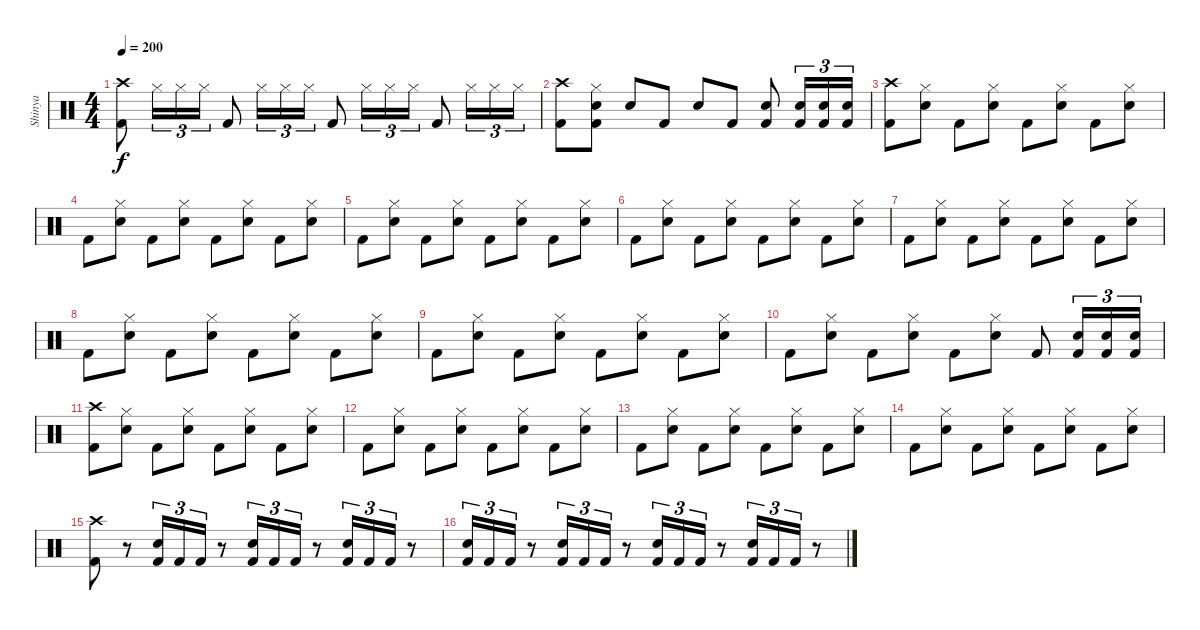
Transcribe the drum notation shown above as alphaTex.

\track ("Shinya" "Shinya") {instrument percussion}
\staff {score}
\articulation defaults
\ts (4 4)
\tempo 200
\clef neutral
\ks c
("Crash high (hit)" "Kick (hit) 2").8{dy f} "Hi-Hat (closed)".16{tu (3 2)} "Hi-Hat (closed)".16{tu (3 2)} "Hi-Hat (closed)".16{tu (3 2)} "Kick (hit) 2".8 "Hi-Hat (closed)".16{tu (3 2)} "Hi-Hat (closed)".16{tu (3 2)} "Hi-Hat (closed)".16{tu (3 2)} "Kick (hit) 2".8 "Hi-Hat (closed)".16{tu (3 2)} "Hi-Hat (closed)".16{tu (3 2)} "Hi-Hat (closed)".16{tu (3 2)} "Kick (hit) 2".8 "Hi-Hat (closed)".16{tu (3 2)} "Hi-Hat (closed)".16{tu (3 2)} "Hi-Hat (closed)".16{tu (3 2)} |
("Crash high (hit)" "Kick (hit) 2").8 ("Hi-Hat (closed)" "Electric Snare (hit)" "Kick (hit) 2").8 "Electric Snare (hit)".8 "Kick (hit) 2".8 "Electric Snare (hit)".8 "Kick (hit) 2".8 ("Electric Snare (hit)" "Kick (hit) 2").8 ("Electric Snare (hit)" "Kick (hit) 2").16{tu (3 2)} ("Electric Snare (hit)" "Kick (hit) 2").16{tu (3 2)} ("Electric Snare (hit)" "Kick (hit) 2").16{tu (3 2)} |
("Crash high (hit)" "Kick (hit) 2").8 ("Hi-Hat (closed)" "Electric Snare (hit)").8 "Kick (hit) 2".8 ("Hi-Hat (closed)" "Electric Snare (hit)").8 "Kick (hit) 2".8 ("Hi-Hat (closed)" "Electric Snare (hit)").8 "Kick (hit) 2".8 ("Hi-Hat (closed)" "Electric Snare (hit)").8 |
"Kick (hit) 2".8 ("Hi-Hat (closed)" "Electric Snare (hit)").8 "Kick (hit) 2".8 ("Hi-Hat (closed)" "Electric Snare (hit)").8 "Kick (hit) 2".8 ("Hi-Hat (closed)" "Electric Snare (hit)").8 "Kick (hit) 2".8 ("Hi-Hat (closed)" "Electric Snare (hit)").8 |
"Kick (hit) 2".8 ("Hi-Hat (closed)" "Electric Snare (hit)").8 "Kick (hit) 2".8 ("Hi-Hat (closed)" "Electric Snare (hit)").8 "Kick (hit) 2".8 ("Hi-Hat (closed)" "Electric Snare (hit)").8 "Kick (hit) 2".8 ("Hi-Hat (closed)" "Electric Snare (hit)").8 |
"Kick (hit) 2".8 ("Hi-Hat (closed)" "Electric Snare (hit)").8 "Kick (hit) 2".8 ("Hi-Hat (closed)" "Electric Snare (hit)").8 "Kick (hit) 2".8 ("Hi-Hat (closed)" "Electric Snare (hit)").8 "Kick (hit) 2".8 ("Hi-Hat (closed)" "Electric Snare (hit)").8 |
"Kick (hit) 2".8 ("Hi-Hat (closed)" "Electric Snare (hit)").8 "Kick (hit) 2".8 ("Hi-Hat (closed)" "Electric Snare (hit)").8 "Kick (hit) 2".8 ("Hi-Hat (closed)" "Electric Snare (hit)").8 "Kick (hit) 2".8 ("Hi-Hat (closed)" "Electric Snare (hit)").8 |
"Kick (hit) 2".8 ("Hi-Hat (closed)" "Electric Snare (hit)").8 "Kick (hit) 2".8 ("Hi-Hat (closed)" "Electric Snare (hit)").8 "Kick (hit) 2".8 ("Hi-Hat (closed)" "Electric Snare (hit)").8 "Kick (hit) 2".8 ("Hi-Hat (closed)" "Electric Snare (hit)").8 |
"Kick (hit) 2".8 ("Hi-Hat (closed)" "Electric Snare (hit)").8 "Kick (hit) 2".8 ("Hi-Hat (closed)" "Electric Snare (hit)").8 "Kick (hit) 2".8 ("Hi-Hat (closed)" "Electric Snare (hit)").8 "Kick (hit) 2".8 ("Hi-Hat (closed)" "Electric Snare (hit)").8 |
"Kick (hit) 2".8 ("Hi-Hat (closed)" "Electric Snare (hit)").8 "Kick (hit) 2".8 ("Hi-Hat (closed)" "Electric Snare (hit)").8 "Kick (hit) 2".8 ("Hi-Hat (closed)" "Electric Snare (hit)").8 "Kick (hit) 2".8 ("Electric Snare (hit)" "Kick (hit) 2").16{tu (3 2)} ("Electric Snare (hit)" "Kick (hit) 2").16{tu (3 2)} ("Electric Snare (hit)" "Kick (hit) 2").16{tu (3 2)} |
("Crash high (hit)" "Kick (hit) 2").8 ("Hi-Hat (closed)" "Electric Snare (hit)").8 "Kick (hit) 2".8 ("Hi-Hat (closed)" "Electric Snare (hit)").8 "Kick (hit) 2".8 ("Hi-Hat (closed)" "Electric Snare (hit)").8 "Kick (hit) 2".8 ("Hi-Hat (closed)" "Electric Snare (hit)").8 |
"Kick (hit) 2".8 ("Hi-Hat (closed)" "Electric Snare (hit)").8 "Kick (hit) 2".8 ("Hi-Hat (closed)" "Electric Snare (hit)").8 "Kick (hit) 2".8 ("Hi-Hat (closed)" "Electric Snare (hit)").8 "Kick (hit) 2".8 ("Hi-Hat (closed)" "Electric Snare (hit)").8 |
"Kick (hit) 2".8 ("Hi-Hat (closed)" "Electric Snare (hit)").8 "Kick (hit) 2".8 ("Hi-Hat (closed)" "Electric Snare (hit)").8 "Kick (hit) 2".8 ("Hi-Hat (closed)" "Electric Snare (hit)").8 "Kick (hit) 2".8 ("Hi-Hat (closed)" "Electric Snare (hit)").8 |
"Kick (hit) 2".8 ("Hi-Hat (closed)" "Electric Snare (hit)").8 "Kick (hit) 2".8 ("Hi-Hat (closed)" "Electric Snare (hit)").8 "Kick (hit) 2".8 ("Hi-Hat (closed)" "Electric Snare (hit)").8 "Kick (hit) 2".8 ("Hi-Hat (closed)" "Electric Snare (hit)").8 |
("Crash high (hit)" "Kick (hit) 2").8 r.8 ("Electric Snare (hit)" "Kick (hit) 2").16{tu (3 2)} "Kick (hit) 2".16{tu (3 2)} "Kick (hit) 2".16{tu (3 2)} r.8 ("Electric Snare (hit)" "Kick (hit) 2").16{tu (3 2)} "Kick (hit) 2".16{tu (3 2)} "Kick (hit) 2".16{tu (3 2)} r.8 ("Electric Snare (hit)" "Kick (hit) 2").16{tu (3 2)} "Kick (hit) 2".16{tu (3 2)} "Kick (hit) 2".16{tu (3 2)} r.8 |
("Electric Snare (hit)" "Kick (hit) 2").16{tu (3 2)} "Kick (hit) 2".16{tu (3 2)} "Kick (hit) 2".16{tu (3 2)} r.8 ("Electric Snare (hit)" "Kick (hit) 2").16{tu (3 2)} "Kick (hit) 2".16{tu (3 2)} "Kick (hit) 2".16{tu (3 2)} r.8 ("Electric Snare (hit)" "Kick (hit) 2").16{tu (3 2)} "Kick (hit) 2".16{tu (3 2)} "Kick (hit) 2".16{tu (3 2)} r.8 ("Electric Snare (hit)" "Kick (hit) 2").16{tu (3 2)} "Kick (hit) 2".16{tu (3 2)} "Kick (hit) 2".16{tu (3 2)} r.8
